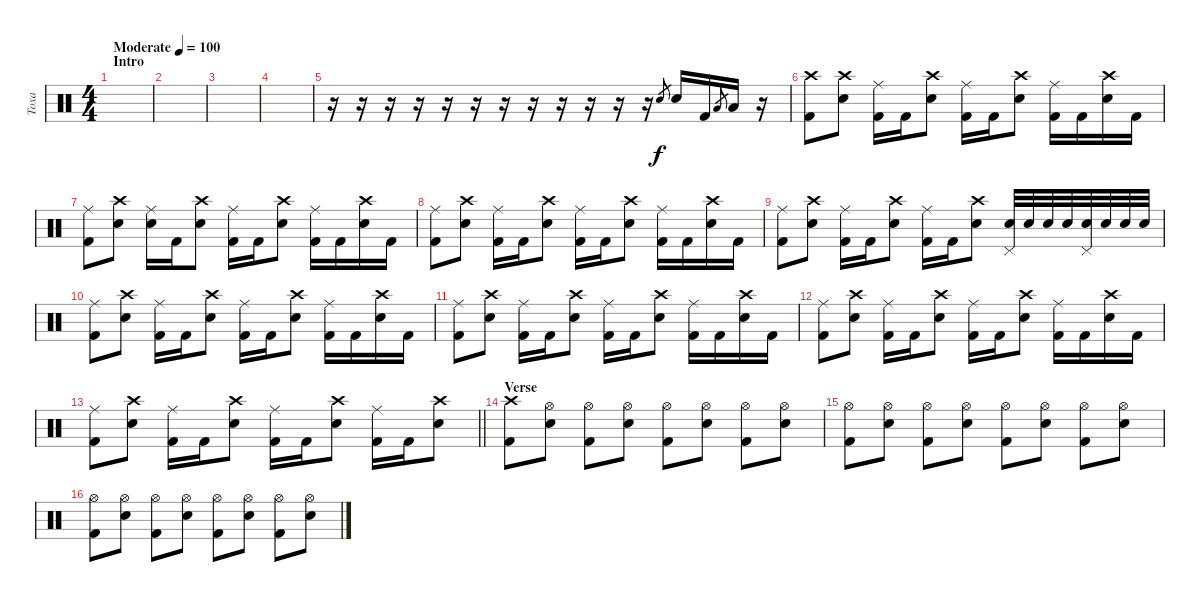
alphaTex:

\track ("Toxa" "Toxa") {instrument percussion}
\staff {score}
\articulation defaults
\ts (4 4)
\section ("" "Intro")
\tempo (100 "Moderate")
\clef neutral
\ks c
|
|
|
|
r.16 r.16 r.16 r.16 r.16 r.16 r.16 r.16 r.16 r.16 r.16 r.16 "Snare (hit) 2".8{gr} "Snare (hit) 2".16 "Kick (hit) 2".16 "Low Tom (hit)".8{gr} "Low Tom (hit)".16 r.16 |
("Kick (hit) 2" "Crash high (hit)").8 ("Snare (hit) 2" "Crash high (hit)").8 ("Kick (hit) 2" "Ride (middle)").16 "Kick (hit) 2".16 ("Snare (hit) 2" "Crash high (hit)").8 ("Kick (hit) 2" "Ride (middle)").16 "Kick (hit) 2".16 ("Snare (hit) 2" "Crash high (hit)").8 ("Kick (hit) 2" "Ride (middle)").16 "Kick (hit) 2".16 ("Snare (hit) 2" "Crash high (hit)").16 "Kick (hit) 2".16 |
("Kick (hit) 2" "Ride (middle)").8 ("Snare (hit) 2" "Crash high (hit)").8 ("Snare (hit) 2" "Ride (middle)").16 "Kick (hit) 2".16 ("Snare (hit) 2" "Crash high (hit)").8 ("Kick (hit) 2" "Ride (middle)").16 "Kick (hit) 2".16 ("Snare (hit) 2" "Crash high (hit)").8 ("Kick (hit) 2" "Ride (middle)").16 "Kick (hit) 2".16 ("Snare (hit) 2" "Crash high (hit)").16 "Kick (hit) 2".16 |
("Kick (hit) 2" "Ride (middle)").8 ("Snare (hit) 2" "Crash high (hit)").8 ("Kick (hit) 2" "Ride (middle)").16 "Kick (hit) 2".16 ("Snare (hit) 2" "Crash high (hit)").8 ("Kick (hit) 2" "Ride (middle)").16 "Kick (hit) 2".16 ("Snare (hit) 2" "Crash high (hit)").8 ("Kick (hit) 2" "Ride (middle)").16 "Kick (hit) 2".16 ("Snare (hit) 2" "Crash high (hit)").16 "Kick (hit) 2".16 |
("Kick (hit) 2" "Ride (middle)").8 ("Snare (hit) 2" "Crash high (hit)").8 ("Kick (hit) 2" "Ride (middle)").16 "Kick (hit) 2".16 ("Snare (hit) 2" "Crash high (hit)").8 ("Kick (hit) 2" "Ride (middle)").16 "Kick (hit) 2".16 ("Snare (hit) 2" "Crash high (hit)").8 ("Pedal Hi-Hat (hit)" "Snare (hit) 2").32 "Snare (hit) 2".32 "Snare (hit) 2".32 "Snare (hit) 2".32 ("Pedal Hi-Hat (hit)" "Snare (hit) 2").32 "Snare (hit) 2".32 "Snare (hit) 2".32 "Snare (hit) 2".32 |
("Kick (hit) 2" "Ride (middle)").8 ("Snare (hit) 2" "Crash high (hit)").8 ("Kick (hit) 2" "Ride (middle)").16 "Kick (hit) 2".16 ("Snare (hit) 2" "Crash high (hit)").8 ("Kick (hit) 2" "Ride (middle)").16 "Kick (hit) 2".16 ("Snare (hit) 2" "Crash high (hit)").8 ("Kick (hit) 2" "Ride (middle)").16 "Kick (hit) 2".16 ("Snare (hit) 2" "Crash high (hit)").16 "Kick (hit) 2".16 |
("Kick (hit) 2" "Ride (middle)").8 ("Snare (hit) 2" "Crash high (hit)").8 ("Kick (hit) 2" "Ride (middle)").16 "Kick (hit) 2".16 ("Snare (hit) 2" "Crash high (hit)").8 ("Kick (hit) 2" "Ride (middle)").16 "Kick (hit) 2".16 ("Snare (hit) 2" "Crash high (hit)").8 ("Kick (hit) 2" "Ride (middle)").16 "Kick (hit) 2".16 ("Snare (hit) 2" "Crash high (hit)").16 "Kick (hit) 2".16 |
("Kick (hit) 2" "Ride (middle)").8 ("Snare (hit) 2" "Crash high (hit)").8 ("Kick (hit) 2" "Ride (middle)").16 "Kick (hit) 2".16 ("Snare (hit) 2" "Crash high (hit)").8 ("Kick (hit) 2" "Ride (middle)").16 "Kick (hit) 2".16 ("Snare (hit) 2" "Crash high (hit)").8 ("Kick (hit) 2" "Ride (middle)").16 "Kick (hit) 2".16 ("Snare (hit) 2" "Crash high (hit)").16 "Kick (hit) 2".16 |
\barLineRight lightlight
("Kick (hit) 2" "Ride (middle)").8 ("Snare (hit) 2" "Crash high (hit)").8 ("Kick (hit) 2" "Ride (middle)").16 "Kick (hit) 2".16 ("Snare (hit) 2" "Crash high (hit)").8 ("Kick (hit) 2" "Ride (middle)").16 "Kick (hit) 2".16 ("Snare (hit) 2" "Crash high (hit)").8 ("Kick (hit) 2" "Ride (middle)").16 "Kick (hit) 2".16 ("Snare (hit) 2" "Crash high (hit)").8 |
\section ("" "Verse")
("Kick (hit) 2" "Crash high (hit)").8 ("Snare (hit) 2" "Hi-Hat (open)").8 ("Kick (hit) 2" "Hi-Hat (open)").8 ("Snare (hit) 2" "Hi-Hat (open)").8 ("Kick (hit) 2" "Hi-Hat (open)").8 ("Snare (hit) 2" "Hi-Hat (open)").8 ("Kick (hit) 2" "Hi-Hat (open)").8 ("Snare (hit) 2" "Hi-Hat (open)").8 |
("Kick (hit) 2" "Hi-Hat (open)").8 ("Snare (hit) 2" "Hi-Hat (open)").8 ("Kick (hit) 2" "Hi-Hat (open)").8 ("Snare (hit) 2" "Hi-Hat (open)").8 ("Kick (hit) 2" "Hi-Hat (open)").8 ("Snare (hit) 2" "Hi-Hat (open)").8 ("Kick (hit) 2" "Hi-Hat (open)").8 ("Snare (hit) 2" "Hi-Hat (open)").8 |
("Kick (hit) 2" "Hi-Hat (open)").8 ("Snare (hit) 2" "Hi-Hat (open)").8 ("Kick (hit) 2" "Hi-Hat (open)").8 ("Snare (hit) 2" "Hi-Hat (open)").8 ("Kick (hit) 2" "Hi-Hat (open)").8 ("Snare (hit) 2" "Hi-Hat (open)").8 ("Kick (hit) 2" "Hi-Hat (open)").8 ("Snare (hit) 2" "Hi-Hat (open)").8
